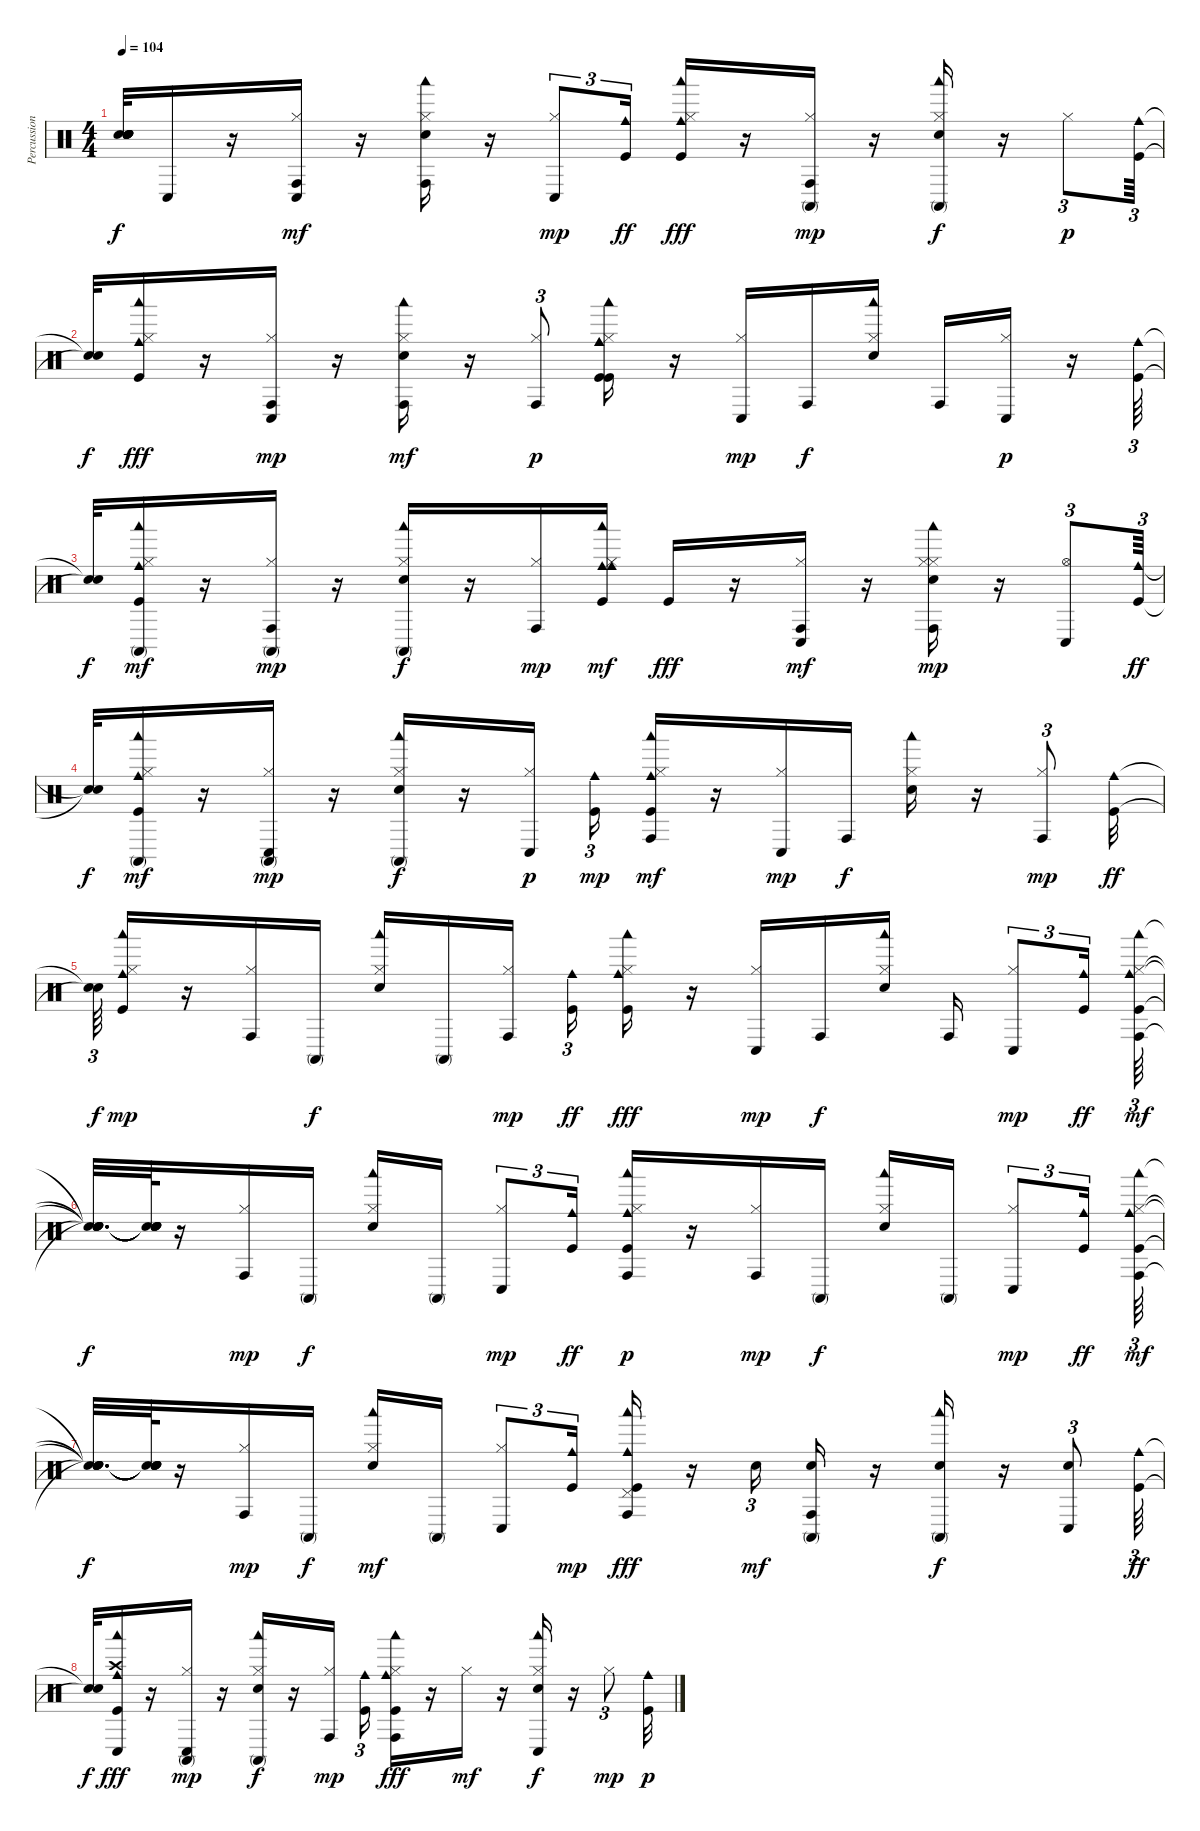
\track ("Percussions (drums + hihats)" "Percussion") {instrument percussion}
\staff {score}
\articulation defaults
\ts (4 4)
\tempo 104
\clef neutral
\ks c
("Snare (hit)"{t} "Snare (hit)"{t} "Snare (hit)"{t} "Snare (hit)"{t} "Snare (hit)"{t} "Snare (hit)"{t}).32{dy f} "Conga low (hit)".16 r.16 ("Hi-Hat (closed)" "Conga low (hit)" "Conga high (hit)").16{dy mf} r.16 ("Electric Snare (hit)" "Woodblock low (hit)" "Hi-Hat (closed)" "Conga high (hit)").16 r.16 ("Conga low (hit)" "Hi-Hat (closed)").8{tu (3 2) dy mp} ("Cowbell medium (hit)" "Kick (hit)").16{tu (3 2) dy ff} ("Cowbell medium (hit)" "Woodblock low (hit)" "Hi-Hat (closed)" "Kick (hit)").16{dy fff} r.16 ("Hi-Hat (closed)" "Conga high (hit)" "Conga high (mute)").16{dy mp} r.16 ("Electric Snare (hit)" "Hi-Hat (closed)" "Woodblock low (hit)" "Conga high (mute)").16{dy f} r.16 "Hi-Hat (closed)".8{tu (3 2) dy p} ("Kick (hit)" "Cowbell medium (hit)").64{tu (3 2)} |
("Snare (hit)"{t} "Snare (hit)"{t}).32{dy f} ("Woodblock low (hit)" "Cowbell medium (hit)" "Hi-Hat (closed)" "Kick (hit)").16{dy fff} r.16 ("Hi-Hat (closed)" "Conga low (hit)" "Conga high (hit)").16{dy mp} r.16 ("Electric Snare (hit)" "Hi-Hat (closed)" "Woodblock low (hit)" "Conga high (hit)").16{dy mf} r.16 ("Hi-Hat (closed)" "Conga high (hit)").8{tu (3 2) dy p} ("Cowbell medium (hit)" "Kick (hit)" "Kick (hit)" "Hi-Hat (closed)" "Woodblock low (hit)" "Cowbell medium (hit)").16 r.16 ("Conga low (hit)" "Hi-Hat (closed)").16{dy mp} "Conga high (hit)".16{dy f} ("Woodblock low (hit)" "Electric Snare (hit)" "Hi-Hat (closed)").16 "Conga high (hit)".16 ("Hi-Hat (closed)" "Conga low (hit)").16{dy p} r.16 ("Kick (hit)" "Cowbell medium (hit)").64{tu (3 2)} |
("Snare (hit)"{t} "Snare (hit)"{t}).32{dy f} ("Kick (hit)" "Woodblock low (hit)" "Cowbell medium (hit)" "Hi-Hat (closed)" "Conga high (mute)").16{dy mf} r.16 ("Hi-Hat (closed)" "Conga high (hit)" "Conga high (mute)").16{dy mp} r.16 ("Hi-Hat (closed)" "Electric Snare (hit)" "Woodblock low (hit)" "Conga high (mute)").16{dy f} r.16 ("Conga high (hit)" "Hi-Hat (closed)").16{dy mp} ("Kick (hit)" "Cowbell medium (hit)" "Cowbell medium (hit)" "Hi-Hat (closed)" "Woodblock low (hit)").16{dy mf} "Kick (hit)".16{dy fff} r.16 ("Hi-Hat (closed)" "Conga low (hit)" "Conga high (hit)").16{dy mf} r.16 ("Woodblock low (hit)" "Hi-Hat (closed)" "Electric Snare (hit)" "Conga high (hit)" "Hi-Hat (closed)").16{dy mp} r.16 ("Conga low (hit)" "Hi-Hat (open)").8{tu (3 2)} ("Cowbell medium (hit)" "Kick (hit)").64{tu (3 2) dy ff} |
("Snare (hit)"{t} "Snare (hit)"{t}).32{dy f} ("Kick (hit)" "Cowbell medium (hit)" "Woodblock low (hit)" "Hi-Hat (closed)" "Conga high (mute)").16{dy mf} r.16 ("Conga low (hit)" "Hi-Hat (closed)" "Conga high (mute)").16{dy mp} r.16 ("Woodblock low (hit)" "Electric Snare (hit)" "Hi-Hat (closed)" "Conga high (mute)").16{dy f} r.16 ("Hi-Hat (closed)" "Conga low (hit)").16{dy p} ("Kick (hit)" "Cowbell medium (hit)").16{tu (3 2) dy mp} ("Hi-Hat (closed)" "Woodblock low (hit)" "Kick (hit)" "Cowbell medium (hit)" "Conga high (hit)").16{dy mf} r.16 ("Hi-Hat (closed)" "Conga low (hit)").16{dy mp} "Conga high (hit)".16{dy f} ("Electric Snare (hit)" "Woodblock low (hit)" "Hi-Hat (closed)").16 r.16 ("Conga high (hit)" "Hi-Hat (closed)").8{tu (3 2) dy mp} ("Cowbell medium (hit)" "Kick (hit)").32{dy ff} |
("Snare (hit)"{t} "Snare (hit)"{t}).64{tu (3 2) dy f} ("Hi-Hat (closed)" "Kick (hit)" "Cowbell medium (hit)" "Woodblock low (hit)").16{dy mp} r.16 ("Conga high (hit)" "Hi-Hat (closed)").16 "Conga high (mute)".16{dy f} ("Hi-Hat (closed)" "Electric Snare (hit)" "Woodblock low (hit)").16 "Conga high (mute)".16 ("Hi-Hat (closed)" "Conga high (hit)").16{dy mp} ("Cowbell medium (hit)" "Kick (hit)").16{tu (3 2) dy ff} ("Woodblock low (hit)" "Hi-Hat (closed)" "Cowbell medium (hit)" "Kick (hit)").16{dy fff} r.16 ("Hi-Hat (closed)" "Conga low (hit)").16{dy mp} "Conga high (hit)".16{dy f} ("Electric Snare (hit)" "Woodblock low (hit)" "Hi-Hat (closed)").16 "Conga high (hit)".16 ("Hi-Hat (closed)" "Conga low (hit)").8{tu (3 2) dy mp} ("Cowbell medium (hit)" "Kick (hit)").16{tu (3 2) dy ff} ("Kick (hit)" "Woodblock low (hit)" "Cowbell medium (hit)" "Hi-Hat (closed)" "Conga high (hit)").64{tu (3 2) dy mf} |
("Snare (hit)"{t} "Snare (hit)"{t} "Snare (hit)"{t} "Snare (hit)"{t} "Snare (hit)"{t}).32{d dy f} ("Snare (hit)"{t} "Snare (hit)"{t} "Snare (hit)"{t} "Snare (hit)"{t} "Snare (hit)"{t}).64 r.16 ("Conga high (hit)" "Hi-Hat (closed)").16{dy mp} "Conga high (mute)".16{dy f} ("Electric Snare (hit)" "Hi-Hat (closed)" "Woodblock low (hit)").16 "Conga high (mute)".16 ("Hi-Hat (closed)" "Conga low (hit)").8{tu (3 2) dy mp} ("Cowbell medium (hit)" "Kick (hit)").16{tu (3 2) dy ff} ("Conga high (hit)" "Kick (hit)" "Woodblock low (hit)" "Hi-Hat (closed)" "Cowbell medium (hit)").16{dy p} r.16 ("Hi-Hat (closed)" "Conga high (hit)").16{dy mp} "Conga high (mute)".16{dy f} ("Hi-Hat (closed)" "Woodblock low (hit)" "Electric Snare (hit)").16 "Conga high (mute)".16 ("Hi-Hat (closed)" "Conga low (hit)").8{tu (3 2) dy mp} ("Cowbell medium (hit)" "Kick (hit)").16{tu (3 2) dy ff} ("Kick (hit)" "Woodblock low (hit)" "Cowbell medium (hit)" "Hi-Hat (closed)" "Conga high (hit)").64{tu (3 2) dy mf} |
("Snare (hit)"{t} "Snare (hit)"{t} "Snare (hit)"{t} "Snare (hit)"{t} "Snare (hit)"{t}).32{d dy f} ("Snare (hit)"{t} "Snare (hit)"{t} "Snare (hit)"{t} "Snare (hit)"{t} "Snare (hit)"{t}).64 r.16 ("Conga high (hit)" "Hi-Hat (closed)").16{dy mp} "Conga high (mute)".16{dy f} ("Woodblock low (hit)" "Electric Snare (hit)" "Hi-Hat (closed)").16{dy mf} "Conga high (mute)".16 ("Hi-Hat (closed)" "Conga low (hit)").8{tu (3 2)} ("Kick (hit)" "Cowbell medium (hit)").16{tu (3 2) dy mp} ("Woodblock low (hit)" "Pedal Hi-Hat (hit)" "Cowbell medium (hit)" "Kick (hit)" "Conga high (hit)").16{dy fff} r.16 "Electric Snare (hit)".16{tu (3 2) dy mf} ("Electric Snare (hit)" "Conga high (hit)" "Conga high (mute)").16 r.16 ("Woodblock low (hit)" "Electric Snare (hit)" "Conga high (mute)").16{dy f} r.16 ("Electric Snare (hit)" "Conga low (hit)").8{tu (3 2)} ("Cowbell medium (hit)" "Kick (hit)").64{tu (3 2) dy ff} |
("Snare (hit)"{t} "Snare (hit)"{t}).32{dy f} ("Woodblock low (hit)" "Crash high (hit)" "Conga low (hit)" "Cowbell medium (hit)" "Kick (hit)").16{dy fff} r.16 ("Conga low (hit)" "Hi-Hat (closed)" "Conga high (mute)").16{dy mp} r.16 ("Electric Snare (hit)" "Hi-Hat (closed)" "Woodblock low (hit)" "Conga high (mute)").16{dy f} r.16 ("Hi-Hat (closed)" "Conga high (hit)").16{dy mp} ("Kick (hit)" "Cowbell medium (hit)").16{tu (3 2)} ("Cowbell medium (hit)" "Hi-Hat (closed)" "Woodblock low (hit)" "Kick (hit)" "Conga high (hit)").16{dy fff} r.16 "Hi-Hat (closed)".16{dy mf} r.16 ("Conga low (hit)" "Electric Snare (hit)" "Woodblock low (hit)" "Hi-Hat (closed)").16{dy f} r.16 "Hi-Hat (closed)".8{tu (3 2) dy mp} ("Kick (hit)" "Cowbell medium (hit)").32{dy p}
